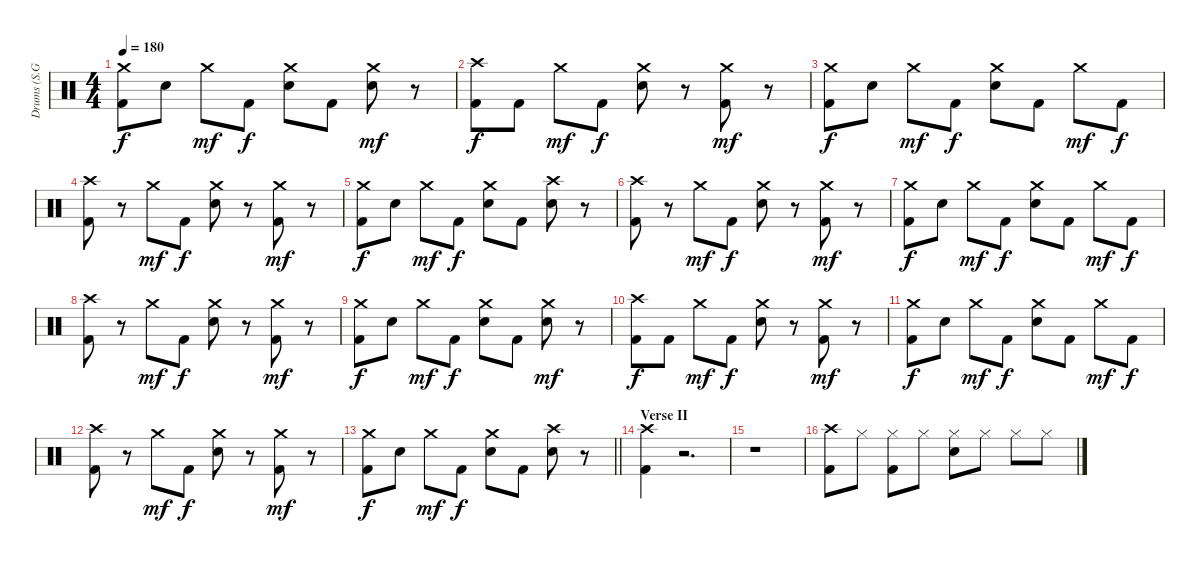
\track ("Drums (S.G. Yim)" "Drums (S.G") {instrument percussion}
\staff {score}
\articulation defaults
\ts (4 4)
\tempo 180
\clef neutral
\ks c
("Crash medium (hit)" "Kick (hit) 2").8{dy f} "Snare (hit) 2".8 "Crash medium (hit)".8{dy mf} "Kick (hit) 2".8{dy f} ("Crash medium (hit)" "Snare (hit) 2").8 "Kick (hit) 2".8 ("Crash medium (hit)" "Snare (hit) 2").8{dy mf} r.8 |
("Crash high (hit)" "Kick (hit) 2").8{dy f} "Kick (hit) 2".8 "Crash medium (hit)".8{dy mf} "Kick (hit) 2".8{dy f} ("Crash medium (hit)" "Snare (hit) 2").8 r.8 ("Crash medium (hit)" "Kick (hit) 2").8{dy mf} r.8 |
("Crash medium (hit)" "Kick (hit) 2").8{dy f} "Snare (hit) 2".8 "Crash medium (hit)".8{dy mf} "Kick (hit) 2".8{dy f} ("Crash medium (hit)" "Snare (hit) 2").8 "Kick (hit) 2".8 "Crash medium (hit)".8{dy mf} "Kick (hit) 2".8{dy f} |
("Crash high (hit)" "Kick (hit) 2").8 r.8 "Crash medium (hit)".8{dy mf} "Kick (hit) 2".8{dy f} ("Crash medium (hit)" "Snare (hit) 2").8 r.8 ("Crash medium (hit)" "Kick (hit) 2").8{dy mf} r.8 |
("Crash medium (hit)" "Kick (hit) 2").8{dy f} "Snare (hit) 2".8 "Crash medium (hit)".8{dy mf} "Kick (hit) 2".8{dy f} ("Crash medium (hit)" "Snare (hit) 2").8 "Kick (hit) 2".8 ("Crash high (hit)" "Snare (hit) 2").8 r.8 |
("Crash high (hit)" "Kick (hit) 2").8 r.8 "Crash medium (hit)".8{dy mf} "Kick (hit) 2".8{dy f} ("Crash medium (hit)" "Snare (hit) 2").8 r.8 ("Crash medium (hit)" "Kick (hit) 2").8{dy mf} r.8 |
("Crash medium (hit)" "Kick (hit) 2").8{dy f} "Snare (hit) 2".8 "Crash medium (hit)".8{dy mf} "Kick (hit) 2".8{dy f} ("Crash medium (hit)" "Snare (hit) 2").8 "Kick (hit) 2".8 "Crash medium (hit)".8{dy mf} "Kick (hit) 2".8{dy f} |
("Crash high (hit)" "Kick (hit) 2").8 r.8 "Crash medium (hit)".8{dy mf} "Kick (hit) 2".8{dy f} ("Crash medium (hit)" "Snare (hit) 2").8 r.8 ("Crash medium (hit)" "Kick (hit) 2").8{dy mf} r.8 |
("Crash medium (hit)" "Kick (hit) 2").8{dy f} "Snare (hit) 2".8 "Crash medium (hit)".8{dy mf} "Kick (hit) 2".8{dy f} ("Crash medium (hit)" "Snare (hit) 2").8 "Kick (hit) 2".8 ("Crash medium (hit)" "Snare (hit) 2").8{dy mf} r.8 |
("Crash high (hit)" "Kick (hit) 2").8{dy f} "Kick (hit) 2".8 "Crash medium (hit)".8{dy mf} "Kick (hit) 2".8{dy f} ("Crash medium (hit)" "Snare (hit) 2").8 r.8 ("Crash medium (hit)" "Kick (hit) 2").8{dy mf} r.8 |
("Crash medium (hit)" "Kick (hit) 2").8{dy f} "Snare (hit) 2".8 "Crash medium (hit)".8{dy mf} "Kick (hit) 2".8{dy f} ("Crash medium (hit)" "Snare (hit) 2").8 "Kick (hit) 2".8 "Crash medium (hit)".8{dy mf} "Kick (hit) 2".8{dy f} |
("Crash high (hit)" "Kick (hit) 2").8 r.8 "Crash medium (hit)".8{dy mf} "Kick (hit) 2".8{dy f} ("Crash medium (hit)" "Snare (hit) 2").8 r.8 ("Crash medium (hit)" "Kick (hit) 2").8{dy mf} r.8 |
\barLineRight lightlight
("Crash medium (hit)" "Kick (hit) 2").8{dy f} "Snare (hit) 2".8 "Crash medium (hit)".8{dy mf} "Kick (hit) 2".8{dy f} ("Crash medium (hit)" "Snare (hit) 2").8 "Kick (hit) 2".8 ("Crash high (hit)" "Snare (hit) 2").8 r.8 |
\section ("" "Verse II")
("Crash high (hit)" "Kick (hit) 2").4 r.2{d} |
r.1 |
("Crash high (hit)" "Kick (hit) 2").8 "Hi-Hat (closed)".8 ("Hi-Hat (closed)" "Kick (hit) 2").8 "Hi-Hat (closed)".8 ("Hi-Hat (closed)" "Snare (hit) 2").8 "Hi-Hat (closed)".8 "Hi-Hat (closed)".8 "Hi-Hat (closed)".8
